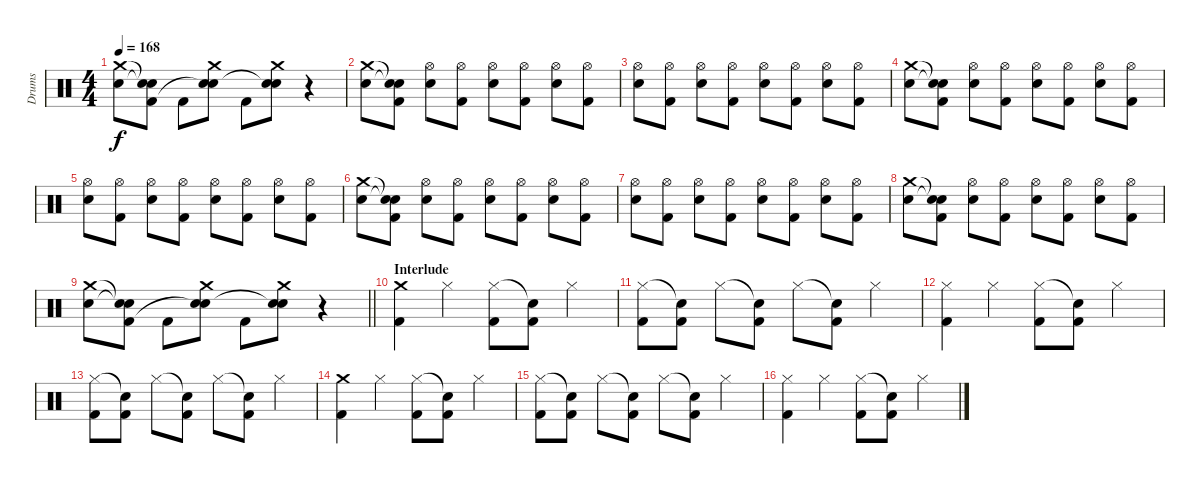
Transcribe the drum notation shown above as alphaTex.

\track ("Drums" "Drums") {instrument percussion}
\staff {score}
\articulation defaults
\ts (4 4)
\tempo 168
\clef neutral
\ks c
("Crash medium (hit)" "Electric Snare (hit)").8{dy f} ("Snare (hit)"{t} "Snare (hit)"{t} "Kick (hit) 2").8 "Kick (hit) 2".8 ("Crash medium (hit)" "Electric Snare (hit)" "Snare (hit)"{t}).8 "Kick (hit) 2".8 ("Crash medium (hit)" "Electric Snare (hit)" "Snare (hit)"{t}).8 r.4 |
("Crash medium (hit)" "Electric Snare (hit)").8 ("Snare (hit)"{t} "Snare (hit)"{t} "Kick (hit) 2").8 ("Hi-Hat (open)" "Electric Snare (hit)").8 ("Hi-Hat (open)" "Kick (hit) 2").8 ("Hi-Hat (open)" "Electric Snare (hit)").8 ("Hi-Hat (open)" "Kick (hit) 2").8 ("Hi-Hat (open)" "Electric Snare (hit)").8 ("Hi-Hat (open)" "Kick (hit) 2").8 |
("Hi-Hat (open)" "Electric Snare (hit)").8 ("Hi-Hat (open)" "Kick (hit) 2").8 ("Hi-Hat (open)" "Electric Snare (hit)").8 ("Hi-Hat (open)" "Kick (hit) 2").8 ("Hi-Hat (open)" "Electric Snare (hit)").8 ("Hi-Hat (open)" "Kick (hit) 2").8 ("Hi-Hat (open)" "Electric Snare (hit)").8 ("Hi-Hat (open)" "Kick (hit) 2").8 |
("Crash medium (hit)" "Electric Snare (hit)").8 ("Snare (hit)"{t} "Snare (hit)"{t} "Kick (hit) 2").8 ("Hi-Hat (open)" "Electric Snare (hit)").8 ("Hi-Hat (open)" "Kick (hit) 2").8 ("Hi-Hat (open)" "Electric Snare (hit)").8 ("Hi-Hat (open)" "Kick (hit) 2").8 ("Hi-Hat (open)" "Electric Snare (hit)").8 ("Hi-Hat (open)" "Kick (hit) 2").8 |
("Hi-Hat (open)" "Electric Snare (hit)").8 ("Hi-Hat (open)" "Kick (hit) 2").8 ("Hi-Hat (open)" "Electric Snare (hit)").8 ("Hi-Hat (open)" "Kick (hit) 2").8 ("Hi-Hat (open)" "Electric Snare (hit)").8 ("Hi-Hat (open)" "Kick (hit) 2").8 ("Hi-Hat (open)" "Electric Snare (hit)").8 ("Hi-Hat (open)" "Kick (hit) 2").8 |
("Crash medium (hit)" "Electric Snare (hit)").8 ("Snare (hit)"{t} "Snare (hit)"{t} "Kick (hit) 2").8 ("Hi-Hat (open)" "Electric Snare (hit)").8 ("Hi-Hat (open)" "Kick (hit) 2").8 ("Hi-Hat (open)" "Electric Snare (hit)").8 ("Hi-Hat (open)" "Kick (hit) 2").8 ("Hi-Hat (open)" "Electric Snare (hit)").8 ("Hi-Hat (open)" "Kick (hit) 2").8 |
("Hi-Hat (open)" "Electric Snare (hit)").8 ("Hi-Hat (open)" "Kick (hit) 2").8 ("Hi-Hat (open)" "Electric Snare (hit)").8 ("Hi-Hat (open)" "Kick (hit) 2").8 ("Hi-Hat (open)" "Electric Snare (hit)").8 ("Hi-Hat (open)" "Kick (hit) 2").8 ("Hi-Hat (open)" "Electric Snare (hit)").8 ("Hi-Hat (open)" "Kick (hit) 2").8 |
("Crash medium (hit)" "Electric Snare (hit)").8 ("Snare (hit)"{t} "Snare (hit)"{t} "Kick (hit) 2").8 ("Hi-Hat (open)" "Electric Snare (hit)").8 ("Hi-Hat (open)" "Kick (hit) 2").8 ("Hi-Hat (open)" "Electric Snare (hit)").8 ("Hi-Hat (open)" "Kick (hit) 2").8 ("Hi-Hat (open)" "Electric Snare (hit)").8 ("Hi-Hat (open)" "Kick (hit) 2").8 |
\barLineRight lightlight
("Crash medium (hit)" "Electric Snare (hit)").8 ("Snare (hit)"{t} "Snare (hit)"{t} "Kick (hit) 2").8 "Kick (hit) 2".8 ("Crash medium (hit)" "Electric Snare (hit)" "Snare (hit)"{t}).8 "Kick (hit) 2".8 ("Crash medium (hit)" "Electric Snare (hit)" "Snare (hit)"{t}).8 r.4 |
\section ("" "Interlude")
("Crash medium (hit)" "Kick (hit) 2").4 "Hi-Hat (closed)".4 ("Hi-Hat (closed)" "Kick (hit) 2").8 ("Snare (hit)"{t} "Kick (hit) 2").8 "Hi-Hat (closed)".4 |
("Hi-Hat (closed)" "Kick (hit) 2").8 ("Snare (hit)"{t} "Kick (hit) 2").8 "Hi-Hat (closed)".8 ("Snare (hit)"{t} "Kick (hit) 2").8 "Hi-Hat (closed)".8 ("Snare (hit)"{t} "Kick (hit) 2").8 "Hi-Hat (closed)".4 |
("Hi-Hat (closed)" "Kick (hit) 2").4 "Hi-Hat (closed)".4 ("Hi-Hat (closed)" "Kick (hit) 2").8 ("Snare (hit)"{t} "Kick (hit) 2").8 "Hi-Hat (closed)".4 |
("Hi-Hat (closed)" "Kick (hit) 2").8 ("Snare (hit)"{t} "Kick (hit) 2").8 "Hi-Hat (closed)".8 ("Snare (hit)"{t} "Kick (hit) 2").8 "Hi-Hat (closed)".8 ("Snare (hit)"{t} "Kick (hit) 2").8 "Hi-Hat (closed)".4 |
("Crash medium (hit)" "Kick (hit) 2").4 "Hi-Hat (closed)".4 ("Hi-Hat (closed)" "Kick (hit) 2").8 ("Snare (hit)"{t} "Kick (hit) 2").8 "Hi-Hat (closed)".4 |
("Hi-Hat (closed)" "Kick (hit) 2").8 ("Snare (hit)"{t} "Kick (hit) 2").8 "Hi-Hat (closed)".8 ("Snare (hit)"{t} "Kick (hit) 2").8 "Hi-Hat (closed)".8 ("Snare (hit)"{t} "Kick (hit) 2").8 "Hi-Hat (closed)".4 |
("Hi-Hat (closed)" "Kick (hit) 2").4 "Hi-Hat (closed)".4 ("Hi-Hat (closed)" "Kick (hit) 2").8 ("Snare (hit)"{t} "Kick (hit) 2").8 "Hi-Hat (closed)".4
